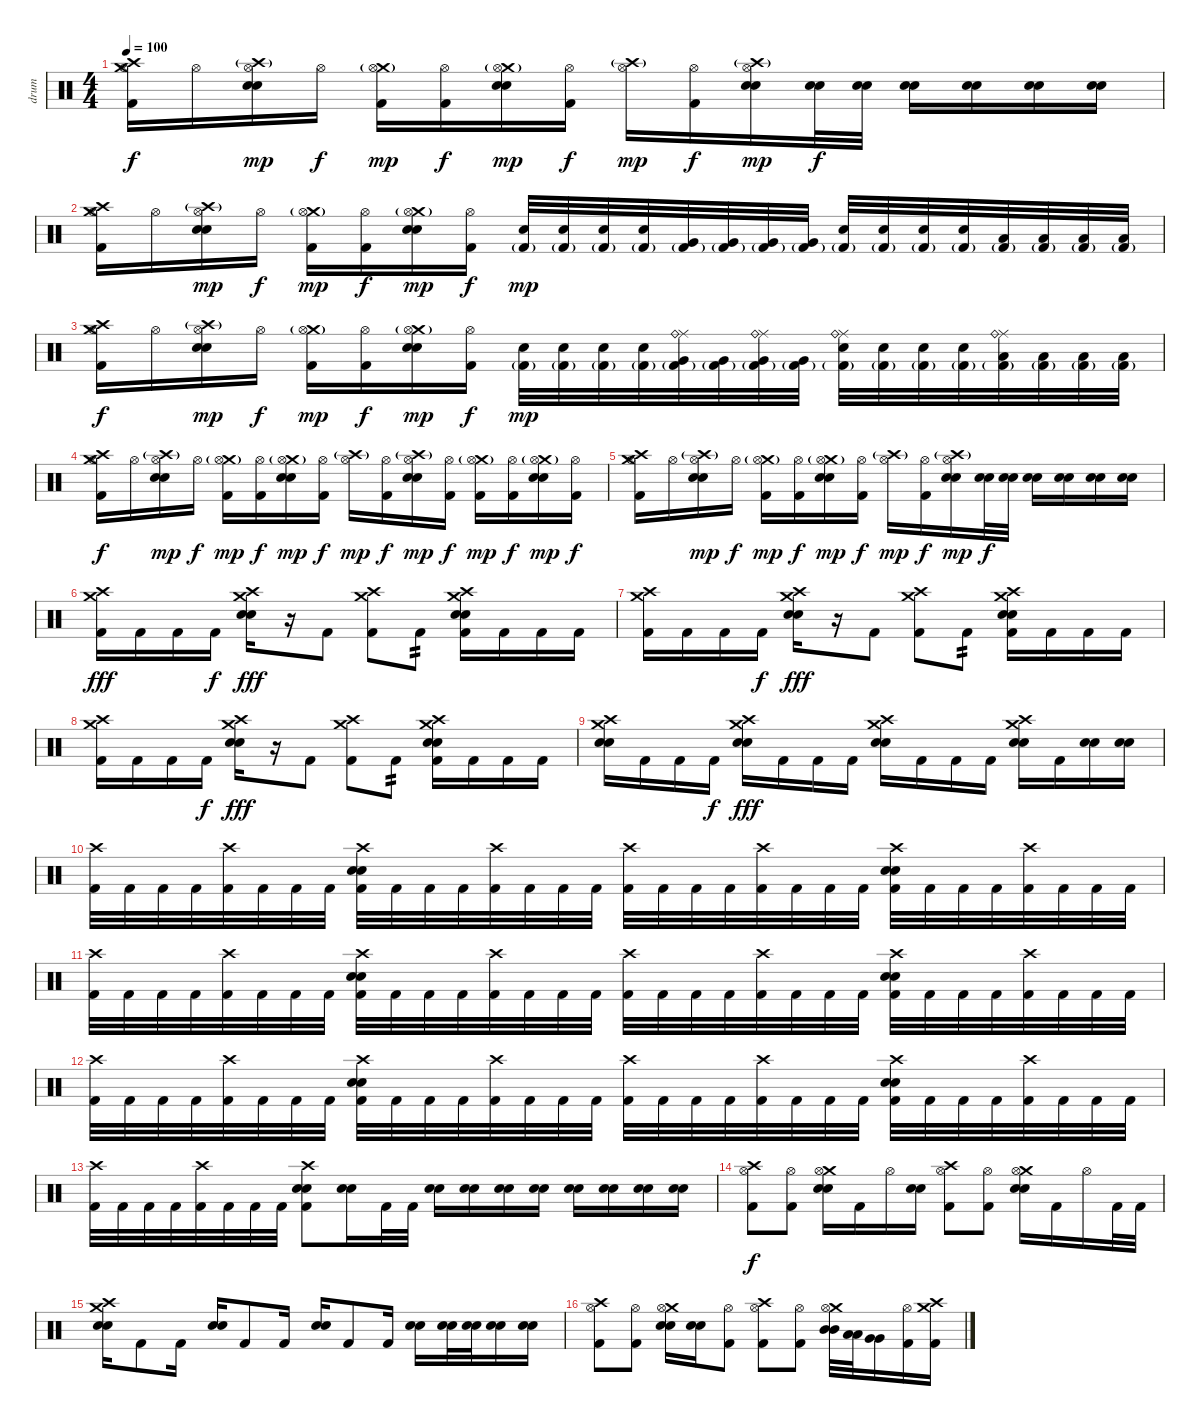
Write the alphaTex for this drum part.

\track ("drum" "drum") {instrument percussion}
\staff {score}
\articulation defaults
\ts (4 4)
\tempo 100
\clef neutral
\ks c
("Crash high (hit)" "Hi-Hat (open)" "Crash medium (hit)" "Kick (hit) 2").16{dy f} "Hi-Hat (open)".16 ("Crash high (hit)"{g} "Hi-Hat (open)" "Snare (hit) 2" "Electric Snare (hit)").16{dy mp} "Hi-Hat (open)".16{dy f} ("Crash medium (hit)"{g} "Hi-Hat (open)" "Kick (hit) 2").16{dy mp} ("Hi-Hat (open)" "Kick (hit) 2").16{dy f} ("Crash medium (hit)"{g} "Hi-Hat (open)" "Snare (hit) 2" "Electric Snare (hit)").16{dy mp} ("Hi-Hat (open)" "Kick (hit) 2").16{dy f} ("Crash high (hit)"{g} "Hi-Hat (open)").16{dy mp} ("Hi-Hat (open)" "Kick (hit) 2").16{dy f} ("Crash high (hit)"{g} "Hi-Hat (open)" "Snare (hit) 2" "Electric Snare (hit)").16{dy mp} ("Snare (hit) 2" "Electric Snare (hit)").32{dy f} ("Snare (hit) 2" "Electric Snare (hit)").32 ("Snare (hit) 2" "Electric Snare (hit)").16 ("Snare (hit) 2" "Electric Snare (hit)").16 ("Snare (hit) 2" "Electric Snare (hit)").16 ("Snare (hit) 2" "Electric Snare (hit)").16 |
("Crash high (hit)" "Hi-Hat (open)" "Crash medium (hit)" "Kick (hit) 2").16 "Hi-Hat (open)".16 ("Crash high (hit)"{g} "Hi-Hat (open)" "Snare (hit) 2" "Electric Snare (hit)").16{dy mp} "Hi-Hat (open)".16{dy f} ("Crash medium (hit)"{g} "Hi-Hat (open)" "Kick (hit) 2").16{dy mp} ("Hi-Hat (open)" "Kick (hit) 2").16{dy f} ("Crash medium (hit)"{g} "Hi-Hat (open)" "Snare (hit) 2" "Electric Snare (hit)").16{dy mp} ("Hi-Hat (open)" "Kick (hit) 2").16{dy f} ("Electric Snare (hit)" "Kick (hit) 2"{g}).32{dy mp} ("Electric Snare (hit)" "Kick (hit) 2"{g}).32 ("Electric Snare (hit)" "Kick (hit) 2"{g}).32 ("Electric Snare (hit)" "Kick (hit) 2"{g}).32 ("Very Low Tom (hit)" "Kick (hit) 2"{g}).32 ("Very Low Tom (hit)" "Kick (hit) 2"{g}).32 ("Very Low Tom (hit)" "Kick (hit) 2"{g}).32 ("Very Low Tom (hit)" "Kick (hit) 2"{g}).32 ("Electric Snare (hit)" "Kick (hit) 2"{g}).32 ("Electric Snare (hit)" "Kick (hit) 2"{g}).32 ("Electric Snare (hit)" "Kick (hit) 2"{g}).32 ("Electric Snare (hit)" "Kick (hit) 2"{g}).32 ("Low Floor Tom (hit)" "Kick (hit) 2"{g}).32 ("Low Floor Tom (hit)" "Kick (hit) 2"{g}).32 ("Low Floor Tom (hit)" "Kick (hit) 2"{g}).32 ("Low Floor Tom (hit)" "Kick (hit) 2"{g}).32 |
("Crash high (hit)" "Hi-Hat (open)" "Crash medium (hit)" "Kick (hit) 2").16{dy f} "Hi-Hat (open)".16 ("Crash high (hit)"{g} "Hi-Hat (open)" "Snare (hit) 2" "Electric Snare (hit)").16{dy mp} "Hi-Hat (open)".16{dy f} ("Crash medium (hit)"{g} "Hi-Hat (open)" "Kick (hit) 2").16{dy mp} ("Hi-Hat (open)" "Kick (hit) 2").16{dy f} ("Crash medium (hit)"{g} "Hi-Hat (open)" "Snare (hit) 2" "Electric Snare (hit)").16{dy mp} ("Hi-Hat (open)" "Kick (hit) 2").16{dy f} ("Electric Snare (hit)" "Kick (hit) 2"{g}).32{dy mp} ("Electric Snare (hit)" "Kick (hit) 2"{g}).32 ("Electric Snare (hit)" "Kick (hit) 2"{g}).32 ("Electric Snare (hit)" "Kick (hit) 2"{g}).32 ("Ride (middle)" "Ride (bell)" "Very Low Tom (hit)" "Kick (hit) 2"{g}).32 ("Very Low Tom (hit)" "Kick (hit) 2"{g}).32 ("Ride (middle)" "Ride (bell)" "Very Low Tom (hit)" "Kick (hit) 2"{g}).32 ("Very Low Tom (hit)" "Kick (hit) 2"{g}).32 ("Ride (middle)" "Ride (bell)" "Electric Snare (hit)" "Kick (hit) 2"{g}).32 ("Electric Snare (hit)" "Kick (hit) 2"{g}).32 ("Electric Snare (hit)" "Kick (hit) 2"{g}).32 ("Electric Snare (hit)" "Kick (hit) 2"{g}).32 ("Ride (middle)" "Ride (bell)" "Low Floor Tom (hit)" "Kick (hit) 2"{g}).32 ("Low Floor Tom (hit)" "Kick (hit) 2"{g}).32 ("Low Floor Tom (hit)" "Kick (hit) 2"{g}).32 ("Low Floor Tom (hit)" "Kick (hit) 2"{g}).32 |
("Crash high (hit)" "Hi-Hat (open)" "Crash medium (hit)" "Kick (hit) 2").16{dy f} "Hi-Hat (open)".16 ("Crash high (hit)"{g} "Hi-Hat (open)" "Snare (hit) 2" "Electric Snare (hit)").16{dy mp} "Hi-Hat (open)".16{dy f} ("Crash medium (hit)"{g} "Hi-Hat (open)" "Kick (hit) 2").16{dy mp} ("Hi-Hat (open)" "Kick (hit) 2").16{dy f} ("Crash medium (hit)"{g} "Hi-Hat (open)" "Snare (hit) 2" "Electric Snare (hit)").16{dy mp} ("Hi-Hat (open)" "Kick (hit) 2").16{dy f} ("Crash high (hit)"{g} "Hi-Hat (open)").16{dy mp} ("Hi-Hat (open)" "Kick (hit) 2").16{dy f} ("Crash high (hit)"{g} "Hi-Hat (open)" "Snare (hit) 2" "Electric Snare (hit)").16{dy mp} ("Hi-Hat (open)" "Kick (hit) 2").16{dy f} ("Crash medium (hit)"{g} "Hi-Hat (open)" "Kick (hit) 2").16{dy mp} ("Hi-Hat (open)" "Kick (hit) 2").16{dy f} ("Crash medium (hit)"{g} "Hi-Hat (open)" "Snare (hit) 2" "Electric Snare (hit)").16{dy mp} ("Hi-Hat (open)" "Kick (hit) 2").16{dy f} |
("Crash high (hit)" "Hi-Hat (open)" "Crash medium (hit)" "Kick (hit) 2").16 "Hi-Hat (open)".16 ("Crash high (hit)"{g} "Hi-Hat (open)" "Snare (hit) 2" "Electric Snare (hit)").16{dy mp} "Hi-Hat (open)".16{dy f} ("Crash medium (hit)"{g} "Hi-Hat (open)" "Kick (hit) 2").16{dy mp} ("Hi-Hat (open)" "Kick (hit) 2").16{dy f} ("Crash medium (hit)"{g} "Hi-Hat (open)" "Snare (hit) 2" "Electric Snare (hit)").16{dy mp} ("Hi-Hat (open)" "Kick (hit) 2").16{dy f} ("Crash high (hit)"{g} "Hi-Hat (open)").16{dy mp} ("Hi-Hat (open)" "Kick (hit) 2").16{dy f} ("Crash high (hit)"{g} "Hi-Hat (open)" "Snare (hit) 2" "Electric Snare (hit)").16{dy mp} ("Snare (hit) 2" "Electric Snare (hit)").32{dy f} ("Snare (hit) 2" "Electric Snare (hit)").32 ("Snare (hit) 2" "Electric Snare (hit)").16 ("Snare (hit) 2" "Electric Snare (hit)").16 ("Snare (hit) 2" "Electric Snare (hit)").16 ("Snare (hit) 2" "Electric Snare (hit)").16 |
("Crash high (hit)" "Crash medium (hit)" "Kick (hit) 2").16{dy fff} "Kick (hit) 2".16 "Kick (hit) 2".16 "Kick (hit) 2".16{dy f} ("Crash high (hit)" "Crash medium (hit)" "Snare (hit) 2" "Electric Snare (hit)").16{dy fff} r.16 "Kick (hit) 2".8 ("Crash high (hit)" "Crash medium (hit)" "Kick (hit) 2").8 "Kick (hit) 2".8{tp 2} ("Crash high (hit)" "Crash medium (hit)" "Snare (hit) 2" "Electric Snare (hit)" "Kick (hit) 2").16 "Kick (hit) 2".16 "Kick (hit) 2".16 "Kick (hit) 2".16 |
("Crash high (hit)" "Crash medium (hit)" "Kick (hit) 2").16 "Kick (hit) 2".16 "Kick (hit) 2".16 "Kick (hit) 2".16{dy f} ("Crash high (hit)" "Crash medium (hit)" "Snare (hit) 2" "Electric Snare (hit)").16{dy fff} r.16 "Kick (hit) 2".8 ("Crash high (hit)" "Crash medium (hit)" "Kick (hit) 2").8 "Kick (hit) 2".8{tp 2} ("Crash high (hit)" "Crash medium (hit)" "Snare (hit) 2" "Electric Snare (hit)" "Kick (hit) 2").16 "Kick (hit) 2".16 "Kick (hit) 2".16 "Kick (hit) 2".16 |
("Crash high (hit)" "Crash medium (hit)" "Kick (hit) 2").16 "Kick (hit) 2".16 "Kick (hit) 2".16 "Kick (hit) 2".16{dy f} ("Crash high (hit)" "Crash medium (hit)" "Snare (hit) 2" "Electric Snare (hit)").16{dy fff} r.16 "Kick (hit) 2".8 ("Crash high (hit)" "Crash medium (hit)" "Kick (hit) 2").8 "Kick (hit) 2".8{tp 2} ("Crash high (hit)" "Crash medium (hit)" "Snare (hit) 2" "Electric Snare (hit)" "Kick (hit) 2").16 "Kick (hit) 2".16 "Kick (hit) 2".16 "Kick (hit) 2".16 |
("Crash high (hit)" "Crash medium (hit)" "Snare (hit) 2" "Electric Snare (hit)").16 "Kick (hit) 2".16 "Kick (hit) 2".16 "Kick (hit) 2".16{dy f} ("Crash high (hit)" "Crash medium (hit)" "Snare (hit) 2" "Electric Snare (hit)").16{dy fff} "Kick (hit) 2".16 "Kick (hit) 2".16 "Kick (hit) 2".16 ("Crash high (hit)" "Crash medium (hit)" "Snare (hit) 2" "Electric Snare (hit)").16 "Kick (hit) 2".16 "Kick (hit) 2".16 "Kick (hit) 2".16 ("Crash high (hit)" "Crash medium (hit)" "Snare (hit) 2" "Electric Snare (hit)").16 "Kick (hit) 2".16 ("Snare (hit) 2" "Electric Snare (hit)").16 ("Snare (hit) 2" "Electric Snare (hit)").16 |
("Crash high (hit)" "Kick (hit) 2").32 "Kick (hit) 2".32 "Kick (hit) 2".32 "Kick (hit) 2".32 ("Crash high (hit)" "Kick (hit) 2").32 "Kick (hit) 2".32 "Kick (hit) 2".32 "Kick (hit) 2".32 ("Crash high (hit)" "Snare (hit) 2" "Electric Snare (hit)" "Kick (hit) 2").32 "Kick (hit) 2".32 "Kick (hit) 2".32 "Kick (hit) 2".32 ("Crash high (hit)" "Kick (hit) 2").32 "Kick (hit) 2".32 "Kick (hit) 2".32 "Kick (hit) 2".32 ("Crash high (hit)" "Kick (hit) 2").32 "Kick (hit) 2".32 "Kick (hit) 2".32 "Kick (hit) 2".32 ("Crash high (hit)" "Kick (hit) 2").32 "Kick (hit) 2".32 "Kick (hit) 2".32 "Kick (hit) 2".32 ("Crash high (hit)" "Snare (hit) 2" "Electric Snare (hit)" "Kick (hit) 2").32 "Kick (hit) 2".32 "Kick (hit) 2".32 "Kick (hit) 2".32 ("Crash high (hit)" "Kick (hit) 2").32 "Kick (hit) 2".32 "Kick (hit) 2".32 "Kick (hit) 2".32 |
("Crash high (hit)" "Kick (hit) 2").32 "Kick (hit) 2".32 "Kick (hit) 2".32 "Kick (hit) 2".32 ("Crash high (hit)" "Kick (hit) 2").32 "Kick (hit) 2".32 "Kick (hit) 2".32 "Kick (hit) 2".32 ("Crash high (hit)" "Snare (hit) 2" "Electric Snare (hit)" "Kick (hit) 2").32 "Kick (hit) 2".32 "Kick (hit) 2".32 "Kick (hit) 2".32 ("Crash high (hit)" "Kick (hit) 2").32 "Kick (hit) 2".32 "Kick (hit) 2".32 "Kick (hit) 2".32 ("Crash high (hit)" "Kick (hit) 2").32 "Kick (hit) 2".32 "Kick (hit) 2".32 "Kick (hit) 2".32 ("Crash high (hit)" "Kick (hit) 2").32 "Kick (hit) 2".32 "Kick (hit) 2".32 "Kick (hit) 2".32 ("Crash high (hit)" "Snare (hit) 2" "Electric Snare (hit)" "Kick (hit) 2").32 "Kick (hit) 2".32 "Kick (hit) 2".32 "Kick (hit) 2".32 ("Crash high (hit)" "Kick (hit) 2").32 "Kick (hit) 2".32 "Kick (hit) 2".32 "Kick (hit) 2".32 |
("Crash high (hit)" "Kick (hit) 2").32 "Kick (hit) 2".32 "Kick (hit) 2".32 "Kick (hit) 2".32 ("Crash high (hit)" "Kick (hit) 2").32 "Kick (hit) 2".32 "Kick (hit) 2".32 "Kick (hit) 2".32 ("Crash high (hit)" "Snare (hit) 2" "Electric Snare (hit)" "Kick (hit) 2").32 "Kick (hit) 2".32 "Kick (hit) 2".32 "Kick (hit) 2".32 ("Crash high (hit)" "Kick (hit) 2").32 "Kick (hit) 2".32 "Kick (hit) 2".32 "Kick (hit) 2".32 ("Crash high (hit)" "Kick (hit) 2").32 "Kick (hit) 2".32 "Kick (hit) 2".32 "Kick (hit) 2".32 ("Crash high (hit)" "Kick (hit) 2").32 "Kick (hit) 2".32 "Kick (hit) 2".32 "Kick (hit) 2".32 ("Crash high (hit)" "Snare (hit) 2" "Electric Snare (hit)" "Kick (hit) 2").32 "Kick (hit) 2".32 "Kick (hit) 2".32 "Kick (hit) 2".32 ("Crash high (hit)" "Kick (hit) 2").32 "Kick (hit) 2".32 "Kick (hit) 2".32 "Kick (hit) 2".32 |
("Crash high (hit)" "Kick (hit) 2").32 "Kick (hit) 2".32 "Kick (hit) 2".32 "Kick (hit) 2".32 ("Crash high (hit)" "Kick (hit) 2").32 "Kick (hit) 2".32 "Kick (hit) 2".32 "Kick (hit) 2".32 ("Crash high (hit)" "Snare (hit) 2" "Electric Snare (hit)" "Kick (hit) 2").8 ("Snare (hit) 2" "Electric Snare (hit)").16 "Kick (hit) 2".32 "Kick (hit) 2".32 ("Snare (hit) 2" "Electric Snare (hit)").16 ("Snare (hit) 2" "Electric Snare (hit)").16 ("Snare (hit) 2" "Electric Snare (hit)").16 ("Snare (hit) 2" "Electric Snare (hit)").16 ("Snare (hit) 2" "Electric Snare (hit)").16 ("Snare (hit) 2" "Electric Snare (hit)").16 ("Snare (hit) 2" "Electric Snare (hit)").16 ("Snare (hit) 2" "Electric Snare (hit)").16 |
("Crash high (hit)" "Hi-Hat (open)" "Kick (hit) 2").8{dy f} ("Hi-Hat (open)" "Kick (hit) 2").8 ("Crash medium (hit)" "Hi-Hat (open)" "Electric Snare (hit)" "Snare (hit) 2").16 "Kick (hit) 2".16 "Hi-Hat (open)".16 ("Electric Snare (hit)" "Snare (hit) 2").16 ("Crash high (hit)" "Hi-Hat (open)" "Kick (hit) 2").8 ("Hi-Hat (open)" "Kick (hit) 2").8 ("Crash medium (hit)" "Hi-Hat (open)" "Electric Snare (hit)" "Snare (hit) 2").16 "Kick (hit) 2".16 "Hi-Hat (open)".16 "Kick (hit) 2".32 "Kick (hit) 2".32 |
("Crash medium (hit)" "Crash high (hit)" "Electric Snare (hit)" "Snare (hit) 2").16 "Kick (hit) 2".8 "Kick (hit) 2".16 ("Electric Snare (hit)" "Snare (hit) 2").16 "Kick (hit) 2".8 "Kick (hit) 2".16 ("Electric Snare (hit)" "Snare (hit) 2").16 "Kick (hit) 2".8 "Kick (hit) 2".16 ("Electric Snare (hit)" "Snare (hit) 2").16 ("Electric Snare (hit)" "Snare (hit) 2").32 ("Electric Snare (hit)" "Snare (hit) 2").32 ("Electric Snare (hit)" "Snare (hit) 2").16 ("Electric Snare (hit)" "Snare (hit) 2").16 |
("Crash high (hit)" "Hi-Hat (open)" "Kick (hit) 2").8 ("Hi-Hat (open)" "Kick (hit) 2").8 ("Crash medium (hit)" "Hi-Hat (open)" "Electric Snare (hit)" "Snare (hit) 2").16 ("Electric Snare (hit)" "Snare (hit) 2").16 ("Hi-Hat (open)" "Kick (hit) 2").8 ("Crash high (hit)" "Hi-Hat (open)" "Kick (hit) 2").8 ("Hi-Hat (open)" "Kick (hit) 2").8 ("Crash medium (hit)" "Hi-Hat (open)" "Mid Tom (hit)" "Mid Tom (hit)").32 ("Low Tom (hit)" "Low Tom (hit)").32 ("Very Low Tom (hit)" "Very Low Tom (hit)").16 ("Hi-Hat (open)" "Kick (hit) 2").16 ("Crash high (hit)" "Crash medium (hit)" "Kick (hit) 2").16
